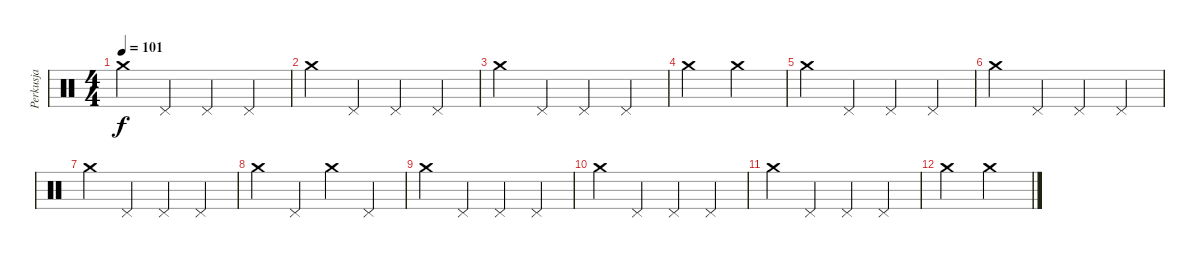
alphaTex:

\track ("Perkusja" "Perkusja") {instrument percussion}
\staff {score}
\articulation defaults
\ts (4 4)
\tempo 101
\clef neutral
\ks c "Crash medium (hit)".4{dy f} "Pedal Hi-Hat (hit)".4 "Pedal Hi-Hat (hit)".4 "Pedal Hi-Hat (hit)".4
|
"Crash medium (hit)".4 "Pedal Hi-Hat (hit)".4 "Pedal Hi-Hat (hit)".4 "Pedal Hi-Hat (hit)".4 |
"Crash medium (hit)".4 "Pedal Hi-Hat (hit)".4 "Pedal Hi-Hat (hit)".4 "Pedal Hi-Hat (hit)".4 |
"Crash medium (hit)".2 "Crash medium (hit)".2 |
"Crash medium (hit)".4 "Pedal Hi-Hat (hit)".4 "Pedal Hi-Hat (hit)".4 "Pedal Hi-Hat (hit)".4 |
"Crash medium (hit)".4 "Pedal Hi-Hat (hit)".4 "Pedal Hi-Hat (hit)".4 "Pedal Hi-Hat (hit)".4 |
"Crash medium (hit)".4 "Pedal Hi-Hat (hit)".4 "Pedal Hi-Hat (hit)".4 "Pedal Hi-Hat (hit)".4 |
"Crash medium (hit)".4 "Pedal Hi-Hat (hit)".4 "Crash medium (hit)".4 "Pedal Hi-Hat (hit)".4 |
"Crash medium (hit)".4 "Pedal Hi-Hat (hit)".4 "Pedal Hi-Hat (hit)".4 "Pedal Hi-Hat (hit)".4 |
"Crash medium (hit)".4 "Pedal Hi-Hat (hit)".4 "Pedal Hi-Hat (hit)".4 "Pedal Hi-Hat (hit)".4 |
"Crash medium (hit)".4 "Pedal Hi-Hat (hit)".4 "Pedal Hi-Hat (hit)".4 "Pedal Hi-Hat (hit)".4 |
"Crash medium (hit)".2 "Crash medium (hit)".2
